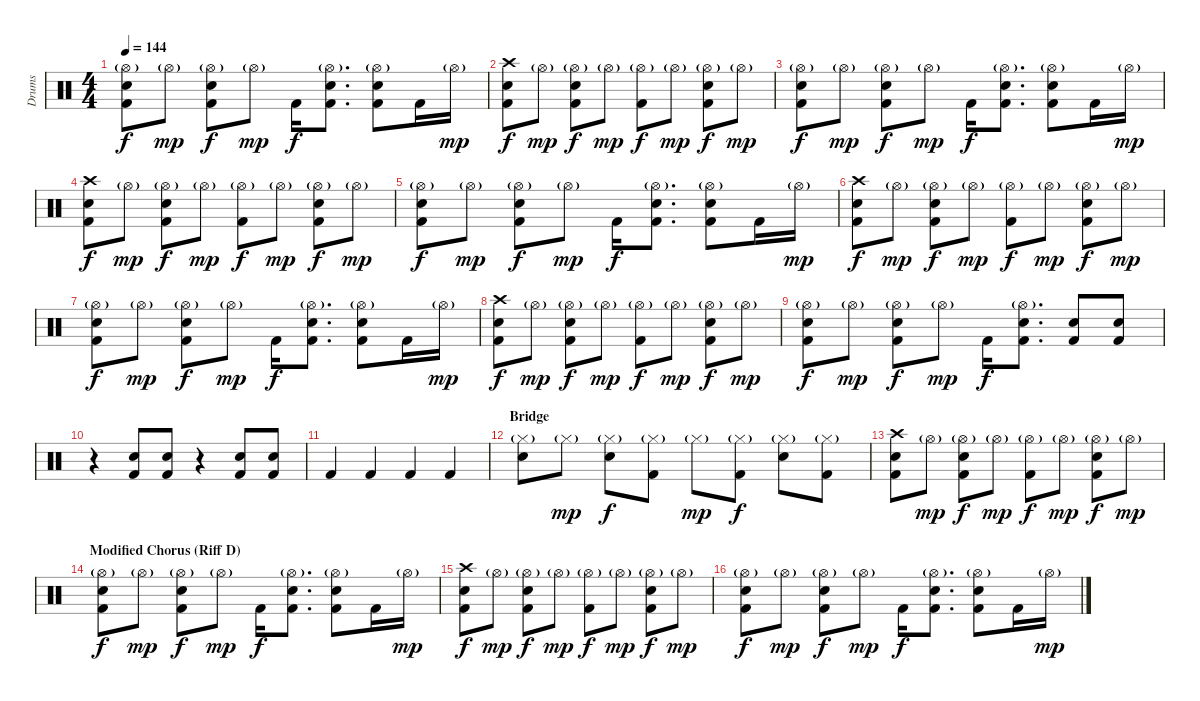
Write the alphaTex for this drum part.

\track ("Drums" "Drums") {instrument percussion}
\staff {score}
\articulation defaults
\ts (4 4)
\tempo 144
\clef neutral
\ks c
("Hi-Hat (open)"{g} "Snare (hit) 2" "Kick (hit) 2").8{dy f} "Hi-Hat (open)"{g}.8{dy mp} ("Hi-Hat (open)"{g} "Snare (hit) 2" "Kick (hit) 2").8{dy f} "Hi-Hat (open)"{g}.8{dy mp} "Kick (hit) 2".16{dy f} ("Hi-Hat (open)"{g} "Snare (hit) 2" "Kick (hit) 2").8{d} ("Hi-Hat (open)"{g} "Snare (hit) 2" "Kick (hit) 2").8 "Kick (hit) 2".16 "Hi-Hat (open)"{g}.16{dy mp} |
("Crash high (hit)" "Snare (hit) 2" "Kick (hit) 2").8{dy f} "Hi-Hat (open)"{g}.8{dy mp} ("Hi-Hat (open)"{g} "Snare (hit) 2" "Kick (hit) 2").8{dy f} "Hi-Hat (open)"{g}.8{dy mp} ("Hi-Hat (open)"{g} "Kick (hit) 2").8{dy f} "Hi-Hat (open)"{g}.8{dy mp} ("Hi-Hat (open)"{g} "Snare (hit) 2" "Kick (hit) 2").8{dy f} "Hi-Hat (open)"{g}.8{dy mp} |
("Hi-Hat (open)"{g} "Snare (hit) 2" "Kick (hit) 2").8{dy f} "Hi-Hat (open)"{g}.8{dy mp} ("Hi-Hat (open)"{g} "Snare (hit) 2" "Kick (hit) 2").8{dy f} "Hi-Hat (open)"{g}.8{dy mp} "Kick (hit) 2".16{dy f} ("Hi-Hat (open)"{g} "Snare (hit) 2" "Kick (hit) 2").8{d} ("Hi-Hat (open)"{g} "Snare (hit) 2" "Kick (hit) 2").8 "Kick (hit) 2".16 "Hi-Hat (open)"{g}.16{dy mp} |
("Crash high (hit)" "Snare (hit) 2" "Kick (hit) 2").8{dy f} "Hi-Hat (open)"{g}.8{dy mp} ("Hi-Hat (open)"{g} "Snare (hit) 2" "Kick (hit) 2").8{dy f} "Hi-Hat (open)"{g}.8{dy mp} ("Hi-Hat (open)"{g} "Kick (hit) 2").8{dy f} "Hi-Hat (open)"{g}.8{dy mp} ("Hi-Hat (open)"{g} "Snare (hit) 2" "Kick (hit) 2").8{dy f} "Hi-Hat (open)"{g}.8{dy mp} |
("Hi-Hat (open)"{g} "Snare (hit) 2" "Kick (hit) 2").8{dy f} "Hi-Hat (open)"{g}.8{dy mp} ("Hi-Hat (open)"{g} "Snare (hit) 2" "Kick (hit) 2").8{dy f} "Hi-Hat (open)"{g}.8{dy mp} "Kick (hit) 2".16{dy f} ("Hi-Hat (open)"{g} "Snare (hit) 2" "Kick (hit) 2").8{d} ("Hi-Hat (open)"{g} "Snare (hit) 2" "Kick (hit) 2").8 "Kick (hit) 2".16 "Hi-Hat (open)"{g}.16{dy mp} |
("Crash high (hit)" "Snare (hit) 2" "Kick (hit) 2").8{dy f} "Hi-Hat (open)"{g}.8{dy mp} ("Hi-Hat (open)"{g} "Snare (hit) 2" "Kick (hit) 2").8{dy f} "Hi-Hat (open)"{g}.8{dy mp} ("Hi-Hat (open)"{g} "Kick (hit) 2").8{dy f} "Hi-Hat (open)"{g}.8{dy mp} ("Hi-Hat (open)"{g} "Snare (hit) 2" "Kick (hit) 2").8{dy f} "Hi-Hat (open)"{g}.8{dy mp} |
("Hi-Hat (open)"{g} "Snare (hit) 2" "Kick (hit) 2").8{dy f} "Hi-Hat (open)"{g}.8{dy mp} ("Hi-Hat (open)"{g} "Snare (hit) 2" "Kick (hit) 2").8{dy f} "Hi-Hat (open)"{g}.8{dy mp} "Kick (hit) 2".16{dy f} ("Hi-Hat (open)"{g} "Snare (hit) 2" "Kick (hit) 2").8{d} ("Hi-Hat (open)"{g} "Snare (hit) 2" "Kick (hit) 2").8 "Kick (hit) 2".16 "Hi-Hat (open)"{g}.16{dy mp} |
("Crash high (hit)" "Snare (hit) 2" "Kick (hit) 2").8{dy f} "Hi-Hat (open)"{g}.8{dy mp} ("Hi-Hat (open)"{g} "Snare (hit) 2" "Kick (hit) 2").8{dy f} "Hi-Hat (open)"{g}.8{dy mp} ("Hi-Hat (open)"{g} "Kick (hit) 2").8{dy f} "Hi-Hat (open)"{g}.8{dy mp} ("Hi-Hat (open)"{g} "Snare (hit) 2" "Kick (hit) 2").8{dy f} "Hi-Hat (open)"{g}.8{dy mp} |
("Hi-Hat (open)"{g} "Snare (hit) 2" "Kick (hit) 2").8{dy f} "Hi-Hat (open)"{g}.8{dy mp} ("Hi-Hat (open)"{g} "Snare (hit) 2" "Kick (hit) 2").8{dy f} "Hi-Hat (open)"{g}.8{dy mp} "Kick (hit) 2".16{dy f} ("Hi-Hat (open)"{g} "Snare (hit) 2" "Kick (hit) 2").8{d} ("Snare (hit) 2" "Kick (hit) 2").8 ("Snare (hit) 2" "Kick (hit) 2").8 |
r.4 ("Snare (hit) 2" "Kick (hit) 2").8 ("Snare (hit) 2" "Kick (hit) 2").8 r.4 ("Snare (hit) 2" "Kick (hit) 2").8 ("Snare (hit) 2" "Kick (hit) 2").8 |
"Kick (hit) 2".4 "Kick (hit) 2".4 "Kick (hit) 2".4 "Kick (hit) 2".4 |
\section ("" "Bridge")
("Hi-Hat (closed)"{g} "Electric Snare (hit)").8 "Hi-Hat (closed)"{g}.8{dy mp} ("Hi-Hat (closed)"{g} "Electric Snare (hit)").8{dy f} ("Hi-Hat (closed)"{g} "Kick (hit) 2").8 "Hi-Hat (closed)"{g}.8{dy mp} ("Hi-Hat (closed)"{g} "Kick (hit) 2").8{dy f} ("Hi-Hat (closed)"{g} "Electric Snare (hit)").8 ("Hi-Hat (closed)"{g} "Kick (hit) 2").8 |
("Crash high (hit)" "Snare (hit) 2" "Kick (hit) 2").8 "Hi-Hat (open)"{g}.8{dy mp} ("Hi-Hat (open)"{g} "Snare (hit) 2" "Kick (hit) 2").8{dy f} "Hi-Hat (open)"{g}.8{dy mp} ("Hi-Hat (open)"{g} "Kick (hit) 2").8{dy f} "Hi-Hat (open)"{g}.8{dy mp} ("Hi-Hat (open)"{g} "Snare (hit) 2" "Kick (hit) 2").8{dy f} "Hi-Hat (open)"{g}.8{dy mp} |
\section ("" "Modified Chorus (Riff D)")
("Hi-Hat (open)"{g} "Snare (hit) 2" "Kick (hit) 2").8{dy f} "Hi-Hat (open)"{g}.8{dy mp} ("Hi-Hat (open)"{g} "Snare (hit) 2" "Kick (hit) 2").8{dy f} "Hi-Hat (open)"{g}.8{dy mp} "Kick (hit) 2".16{dy f} ("Hi-Hat (open)"{g} "Snare (hit) 2" "Kick (hit) 2").8{d} ("Hi-Hat (open)"{g} "Snare (hit) 2" "Kick (hit) 2").8 "Kick (hit) 2".16 "Hi-Hat (open)"{g}.16{dy mp} |
("Crash high (hit)" "Snare (hit) 2" "Kick (hit) 2").8{dy f} "Hi-Hat (open)"{g}.8{dy mp} ("Hi-Hat (open)"{g} "Snare (hit) 2" "Kick (hit) 2").8{dy f} "Hi-Hat (open)"{g}.8{dy mp} ("Hi-Hat (open)"{g} "Kick (hit) 2").8{dy f} "Hi-Hat (open)"{g}.8{dy mp} ("Hi-Hat (open)"{g} "Snare (hit) 2" "Kick (hit) 2").8{dy f} "Hi-Hat (open)"{g}.8{dy mp} |
("Hi-Hat (open)"{g} "Snare (hit) 2" "Kick (hit) 2").8{dy f} "Hi-Hat (open)"{g}.8{dy mp} ("Hi-Hat (open)"{g} "Snare (hit) 2" "Kick (hit) 2").8{dy f} "Hi-Hat (open)"{g}.8{dy mp} "Kick (hit) 2".16{dy f} ("Hi-Hat (open)"{g} "Snare (hit) 2" "Kick (hit) 2").8{d} ("Hi-Hat (open)"{g} "Snare (hit) 2" "Kick (hit) 2").8 "Kick (hit) 2".16 "Hi-Hat (open)"{g}.16{dy mp}
